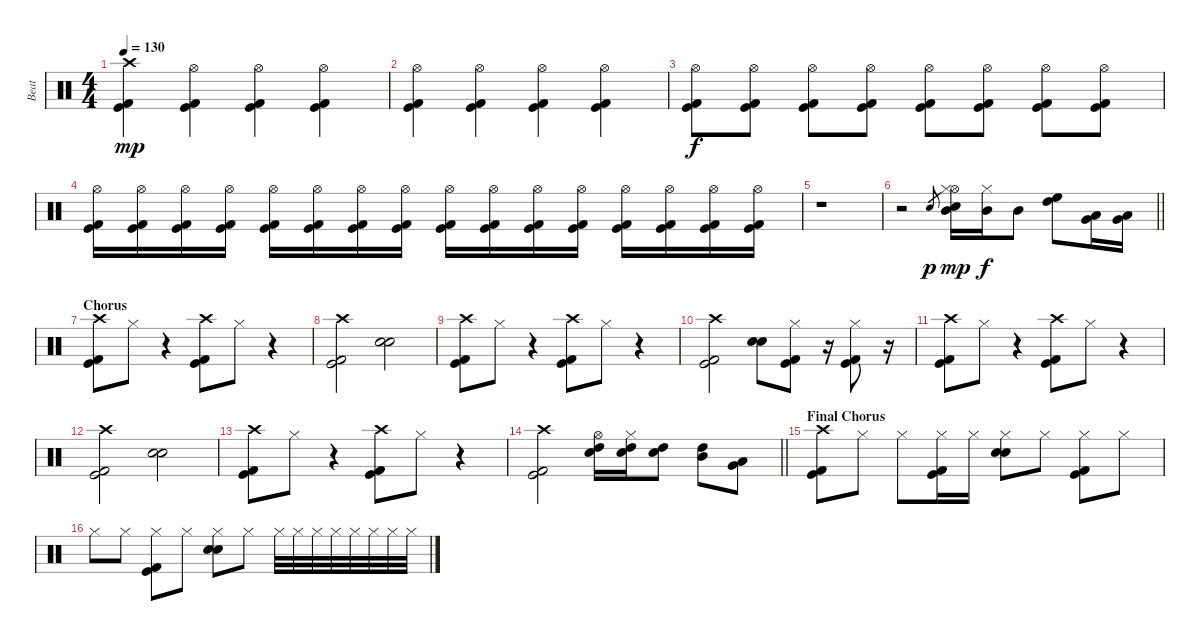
\track ("Beat" "Beat") {instrument percussion}
\staff {score}
\articulation defaults
\ts (4 4)
\tempo 130
\clef neutral
\ks c
("Crash high (hit)" "Kick (hit)" "Kick (hit) 2").4{dy mp} ("Hi-Hat (open)" "Kick (hit)" "Kick (hit) 2").4 ("Hi-Hat (open)" "Kick (hit)" "Kick (hit) 2").4 ("Hi-Hat (open)" "Kick (hit)" "Kick (hit) 2").4 |
("Hi-Hat (open)" "Kick (hit)" "Kick (hit) 2").4 ("Hi-Hat (open)" "Kick (hit)" "Kick (hit) 2").4 ("Hi-Hat (open)" "Kick (hit)" "Kick (hit) 2").4 ("Hi-Hat (open)" "Kick (hit)" "Kick (hit) 2").4 |
("Hi-Hat (open)" "Kick (hit)" "Kick (hit) 2").8{dy f} ("Hi-Hat (open)" "Kick (hit)" "Kick (hit) 2").8 ("Hi-Hat (open)" "Kick (hit)" "Kick (hit) 2").8 ("Hi-Hat (open)" "Kick (hit)" "Kick (hit) 2").8 ("Hi-Hat (open)" "Kick (hit)" "Kick (hit) 2").8 ("Hi-Hat (open)" "Kick (hit)" "Kick (hit) 2").8 ("Hi-Hat (open)" "Kick (hit)" "Kick (hit) 2").8 ("Hi-Hat (open)" "Kick (hit)" "Kick (hit) 2").8 |
("Hi-Hat (open)" "Kick (hit)" "Kick (hit) 2").16 ("Hi-Hat (open)" "Kick (hit)" "Kick (hit) 2").16 ("Hi-Hat (open)" "Kick (hit)" "Kick (hit) 2").16 ("Hi-Hat (open)" "Kick (hit)" "Kick (hit) 2").16 ("Hi-Hat (open)" "Kick (hit)" "Kick (hit) 2").16 ("Hi-Hat (open)" "Kick (hit)" "Kick (hit) 2").16 ("Hi-Hat (open)" "Kick (hit)" "Kick (hit) 2").16 ("Hi-Hat (open)" "Kick (hit)" "Kick (hit) 2").16 ("Hi-Hat (open)" "Kick (hit)" "Kick (hit) 2").16 ("Hi-Hat (open)" "Kick (hit)" "Kick (hit) 2").16 ("Hi-Hat (open)" "Kick (hit)" "Kick (hit) 2").16 ("Hi-Hat (open)" "Kick (hit)" "Kick (hit) 2").16 ("Hi-Hat (open)" "Kick (hit)" "Kick (hit) 2").16 ("Hi-Hat (open)" "Kick (hit)" "Kick (hit) 2").16 ("Hi-Hat (open)" "Kick (hit)" "Kick (hit) 2").16 ("Hi-Hat (open)" "Kick (hit)" "Kick (hit) 2").16 |
r.1 |
\barLineRight lightlight
r.2 "Snare (hit) 2"{h}.8{gr dy p} ("Hi-Hat (open)" "Mid Tom (hit)" "Snare (hit) 2" "Hi-Hat (closed)").16{dy mp} ("Hi-Hat (closed)" "Mid Tom (hit)").16{dy f} "Mid Tom (hit)".8 ("High Floor Tom (hit)" "High Tom (hit)").8 ("Low Tom (hit)" "Very Low Tom (hit)").16 ("Low Tom (hit)" "Very Low Tom (hit)").16 |
\section ("" "Chorus")
("Crash high (hit)" "Kick (hit)" "Kick (hit) 2").8 "Hi-Hat (closed)".8 r.4 ("Crash high (hit)" "Kick (hit)" "Kick (hit) 2").8 "Hi-Hat (closed)".8 r.4 |
("Crash high (hit)" "Kick (hit)" "Kick (hit) 2").2 ("Hand Clap (hit)" "Snare (hit) 2").2 |
("Crash high (hit)" "Kick (hit)" "Kick (hit) 2").8 "Hi-Hat (closed)".8 r.4 ("Crash high (hit)" "Kick (hit)" "Kick (hit) 2").8 "Hi-Hat (closed)".8 r.4 |
("Crash high (hit)" "Kick (hit)" "Kick (hit) 2").2 ("Hand Clap (hit)" "Snare (hit) 2").8 ("Hi-Hat (closed)" "Kick (hit)" "Kick (hit) 2").8 r.16 ("Hi-Hat (closed)" "Kick (hit)" "Kick (hit) 2").8 r.16 |
("Crash high (hit)" "Kick (hit)" "Kick (hit) 2").8 "Hi-Hat (closed)".8 r.4 ("Crash high (hit)" "Kick (hit)" "Kick (hit) 2").8 "Hi-Hat (closed)".8 r.4 |
("Crash high (hit)" "Kick (hit)" "Kick (hit) 2").2 ("Hand Clap (hit)" "Snare (hit) 2").2 |
("Crash high (hit)" "Kick (hit)" "Kick (hit) 2").8 "Hi-Hat (closed)".8 r.4 ("Crash high (hit)" "Kick (hit)" "Kick (hit) 2").8 "Hi-Hat (closed)".8 r.4 |
\barLineRight lightlight
("Crash high (hit)" "Kick (hit)" "Kick (hit) 2").2 ("Hi-Hat (open)" "High Tom (hit)" "Snare (hit) 2").16 ("Hi-Hat (closed)" "High Tom (hit)" "Snare (hit) 2").16 ("High Tom (hit)" "Snare (hit) 2").8 ("High Tom (hit)" "Mid Tom (hit)").8 ("Low Tom (hit)" "Very Low Tom (hit)").8 |
\section ("" "Final Chorus")
("Crash high (hit)" "Kick (hit)" "Kick (hit) 2").8 "Hi-Hat (closed)".8 "Hi-Hat (closed)".8 ("Hi-Hat (closed)" "Kick (hit)" "Kick (hit) 2").16 "Hi-Hat (closed)".16 ("Hi-Hat (closed)" "Hand Clap (hit)" "Snare (hit) 2").8 "Hi-Hat (closed)".8 ("Hi-Hat (closed)" "Kick (hit)" "Kick (hit) 2").8 "Hi-Hat (closed)".8 |
"Hi-Hat (closed)".8 "Hi-Hat (closed)".8 ("Hi-Hat (closed)" "Kick (hit)" "Kick (hit) 2").8 "Hi-Hat (closed)".8 ("Hi-Hat (closed)" "Hand Clap (hit)" "Snare (hit) 2").8 "Hi-Hat (closed)".8 "Hi-Hat (closed)".32 "Hi-Hat (closed)".32 "Hi-Hat (closed)".32 "Hi-Hat (closed)".32 "Hi-Hat (closed)".32 "Hi-Hat (closed)".32 "Hi-Hat (closed)".32 "Hi-Hat (closed)".32
